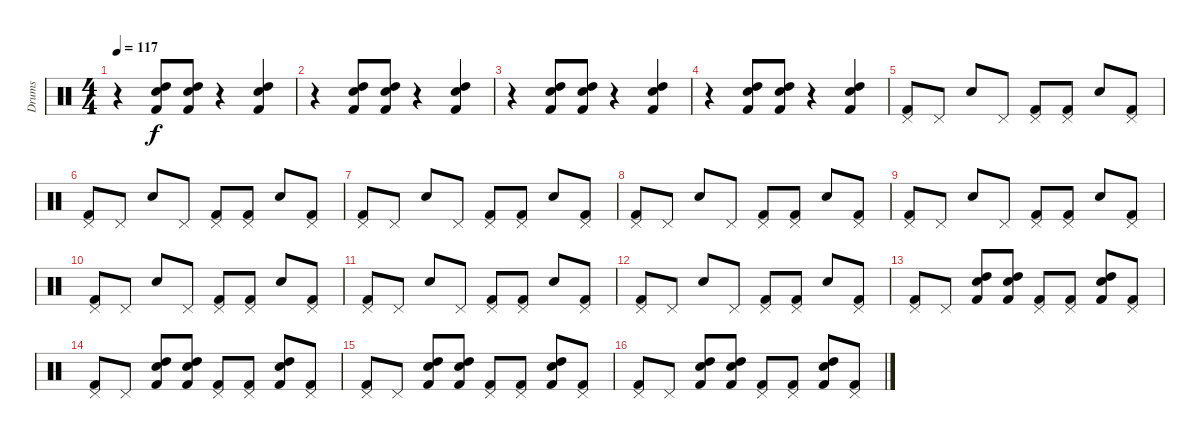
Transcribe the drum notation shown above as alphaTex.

\track ("Drums" "Drums") {instrument percussion}
\staff {score}
\articulation defaults
\ts (4 4)
\tempo 117
\clef neutral
\ks c
r.4{dy f} ("High Tom (hit)" "Snare (hit) 2" "Kick (hit) 2").8 ("High Tom (hit)" "Snare (hit) 2" "Kick (hit) 2").8 r.4 ("High Tom (hit)" "Snare (hit) 2" "Kick (hit) 2").4 |
r.4 ("High Tom (hit)" "Snare (hit) 2" "Kick (hit) 2").8 ("High Tom (hit)" "Snare (hit) 2" "Kick (hit) 2").8 r.4 ("High Tom (hit)" "Snare (hit) 2" "Kick (hit) 2").4 |
r.4 ("High Tom (hit)" "Snare (hit) 2" "Kick (hit) 2").8 ("High Tom (hit)" "Snare (hit) 2" "Kick (hit) 2").8 r.4 ("High Tom (hit)" "Snare (hit) 2" "Kick (hit) 2").4 |
r.4 ("High Tom (hit)" "Snare (hit) 2" "Kick (hit) 2").8 ("High Tom (hit)" "Snare (hit) 2" "Kick (hit) 2").8 r.4 ("High Tom (hit)" "Snare (hit) 2" "Kick (hit) 2").4 |
("Pedal Hi-Hat (hit)" "Kick (hit) 2").8 "Pedal Hi-Hat (hit)".8 "Snare (hit) 2".8 "Pedal Hi-Hat (hit)".8 ("Pedal Hi-Hat (hit)" "Kick (hit) 2").8 ("Pedal Hi-Hat (hit)" "Kick (hit) 2").8 "Snare (hit) 2".8 ("Pedal Hi-Hat (hit)" "Kick (hit) 2").8 |
("Pedal Hi-Hat (hit)" "Kick (hit) 2").8 "Pedal Hi-Hat (hit)".8 "Snare (hit) 2".8 "Pedal Hi-Hat (hit)".8 ("Pedal Hi-Hat (hit)" "Kick (hit) 2").8 ("Pedal Hi-Hat (hit)" "Kick (hit) 2").8 "Snare (hit) 2".8 ("Pedal Hi-Hat (hit)" "Kick (hit) 2").8 |
("Pedal Hi-Hat (hit)" "Kick (hit) 2").8 "Pedal Hi-Hat (hit)".8 "Snare (hit) 2".8 "Pedal Hi-Hat (hit)".8 ("Pedal Hi-Hat (hit)" "Kick (hit) 2").8 ("Pedal Hi-Hat (hit)" "Kick (hit) 2").8 "Snare (hit) 2".8 ("Pedal Hi-Hat (hit)" "Kick (hit) 2").8 |
("Pedal Hi-Hat (hit)" "Kick (hit) 2").8 "Pedal Hi-Hat (hit)".8 "Snare (hit) 2".8 "Pedal Hi-Hat (hit)".8 ("Pedal Hi-Hat (hit)" "Kick (hit) 2").8 ("Pedal Hi-Hat (hit)" "Kick (hit) 2").8 "Snare (hit) 2".8 ("Pedal Hi-Hat (hit)" "Kick (hit) 2").8 |
("Pedal Hi-Hat (hit)" "Kick (hit) 2").8 "Pedal Hi-Hat (hit)".8 "Snare (hit) 2".8 "Pedal Hi-Hat (hit)".8 ("Pedal Hi-Hat (hit)" "Kick (hit) 2").8 ("Pedal Hi-Hat (hit)" "Kick (hit) 2").8 "Snare (hit) 2".8 ("Pedal Hi-Hat (hit)" "Kick (hit) 2").8 |
("Pedal Hi-Hat (hit)" "Kick (hit) 2").8 "Pedal Hi-Hat (hit)".8 "Snare (hit) 2".8 "Pedal Hi-Hat (hit)".8 ("Pedal Hi-Hat (hit)" "Kick (hit) 2").8 ("Pedal Hi-Hat (hit)" "Kick (hit) 2").8 "Snare (hit) 2".8 ("Pedal Hi-Hat (hit)" "Kick (hit) 2").8 |
("Pedal Hi-Hat (hit)" "Kick (hit) 2").8 "Pedal Hi-Hat (hit)".8 "Snare (hit) 2".8 "Pedal Hi-Hat (hit)".8 ("Pedal Hi-Hat (hit)" "Kick (hit) 2").8 ("Pedal Hi-Hat (hit)" "Kick (hit) 2").8 "Snare (hit) 2".8 ("Pedal Hi-Hat (hit)" "Kick (hit) 2").8 |
("Pedal Hi-Hat (hit)" "Kick (hit) 2").8 "Pedal Hi-Hat (hit)".8 "Snare (hit) 2".8 "Pedal Hi-Hat (hit)".8 ("Pedal Hi-Hat (hit)" "Kick (hit) 2").8 ("Pedal Hi-Hat (hit)" "Kick (hit) 2").8 "Snare (hit) 2".8 ("Pedal Hi-Hat (hit)" "Kick (hit) 2").8 |
("Pedal Hi-Hat (hit)" "Kick (hit) 2").8 "Pedal Hi-Hat (hit)".8 ("High Tom (hit)" "Snare (hit) 2" "Kick (hit) 2").8 ("High Tom (hit)" "Snare (hit) 2" "Kick (hit) 2").8 ("Pedal Hi-Hat (hit)" "Kick (hit) 2").8 ("Pedal Hi-Hat (hit)" "Kick (hit) 2").8 ("High Tom (hit)" "Snare (hit) 2" "Kick (hit) 2").8 ("Pedal Hi-Hat (hit)" "Kick (hit) 2").8 |
("Pedal Hi-Hat (hit)" "Kick (hit) 2").8 "Pedal Hi-Hat (hit)".8 ("High Tom (hit)" "Snare (hit) 2" "Kick (hit) 2").8 ("High Tom (hit)" "Snare (hit) 2" "Kick (hit) 2").8 ("Pedal Hi-Hat (hit)" "Kick (hit) 2").8 ("Pedal Hi-Hat (hit)" "Kick (hit) 2").8 ("High Tom (hit)" "Snare (hit) 2" "Kick (hit) 2").8 ("Pedal Hi-Hat (hit)" "Kick (hit) 2").8 |
("Pedal Hi-Hat (hit)" "Kick (hit) 2").8 "Pedal Hi-Hat (hit)".8 ("High Tom (hit)" "Snare (hit) 2" "Kick (hit) 2").8 ("High Tom (hit)" "Snare (hit) 2" "Kick (hit) 2").8 ("Pedal Hi-Hat (hit)" "Kick (hit) 2").8 ("Pedal Hi-Hat (hit)" "Kick (hit) 2").8 ("High Tom (hit)" "Snare (hit) 2" "Kick (hit) 2").8 ("Pedal Hi-Hat (hit)" "Kick (hit) 2").8 |
("Pedal Hi-Hat (hit)" "Kick (hit) 2").8 "Pedal Hi-Hat (hit)".8 ("High Tom (hit)" "Snare (hit) 2" "Kick (hit) 2").8 ("High Tom (hit)" "Snare (hit) 2" "Kick (hit) 2").8 ("Pedal Hi-Hat (hit)" "Kick (hit) 2").8 ("Pedal Hi-Hat (hit)" "Kick (hit) 2").8 ("High Tom (hit)" "Snare (hit) 2" "Kick (hit) 2").8 ("Pedal Hi-Hat (hit)" "Kick (hit) 2").8
